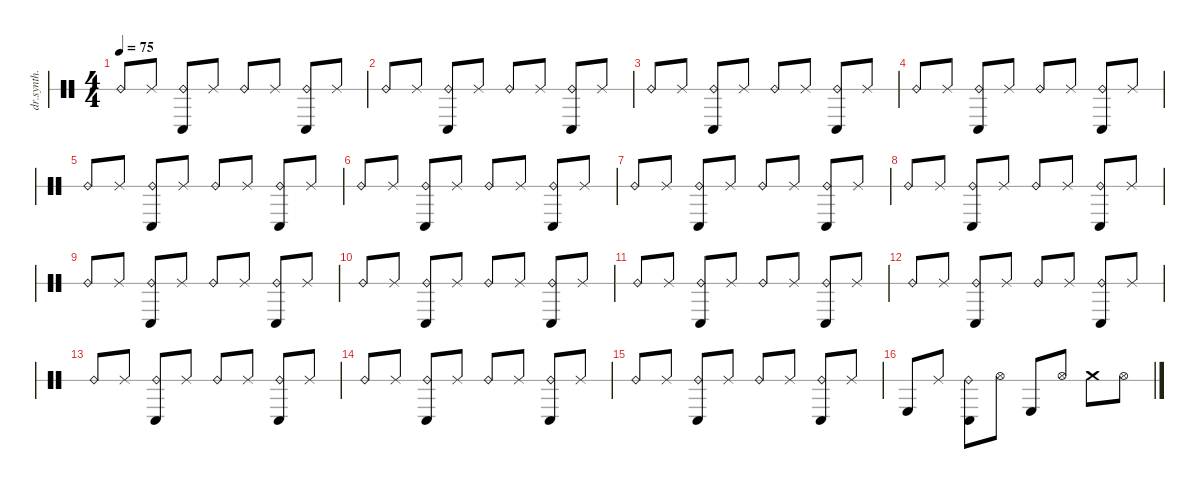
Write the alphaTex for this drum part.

\defaultSystemsLayout 4
\hideDynamics
\bracketExtendMode nobrackets
\otherSystemsTrackNameOrientation horizontal
\track ("Synth Drum" "dr.synth.") {instrument percussion}
\staff {score 1}
\articulation defaults
\ts (4 4)
\tempo 75
\clef neutral
\ks c "Ride (bell)".8{dy fff beam Up} "Ride (middle)".8{dy p beam Up}
("Ride (bell)" "Timbale high (hit)").8{dy mp beam Up} "Ride (middle)".8{dy f beam Up} "Ride (bell)".8{dy fff beam Up} "Ride (middle)".8{dy p beam Up} ("Ride (bell)" "Timbale high (hit)").8{dy mp beam Up} "Ride (middle)".8{dy f beam Up} |
"Ride (bell)".8{beam Up} "Ride (middle)".8{beam Up} ("Ride (bell)" "Timbale high (hit)").8{beam Up} "Ride (middle)".8{beam Up} "Ride (bell)".8{beam Up} "Ride (middle)".8{beam Up} ("Ride (bell)" "Timbale high (hit)").8{beam Up} "Ride (middle)".8{beam Up} |
"Ride (bell)".8{dy fff beam Up} "Ride (middle)".8{dy p beam Up} ("Ride (bell)" "Timbale high (hit)").8{dy mp beam Up} "Ride (middle)".8{dy f beam Up} "Ride (bell)".8{dy fff beam Up} "Ride (middle)".8{dy p beam Up} ("Ride (bell)" "Timbale high (hit)").8{dy mp beam Up} "Ride (middle)".8{dy f beam Up} |
"Ride (bell)".8{beam Up} "Ride (middle)".8{beam Up} ("Ride (bell)" "Timbale high (hit)").8{beam Up} "Ride (middle)".8{beam Up} "Ride (bell)".8{beam Up} "Ride (middle)".8{beam Up} ("Ride (bell)" "Timbale high (hit)").8{beam Up} "Ride (middle)".8{beam Up} |
"Ride (bell)".8{dy fff beam Up} "Ride (middle)".8{dy p beam Up} ("Ride (bell)" "Timbale high (hit)").8{dy mp beam Up} "Ride (middle)".8{dy f beam Up} "Ride (bell)".8{dy fff beam Up} "Ride (middle)".8{dy p beam Up} ("Ride (bell)" "Timbale high (hit)").8{dy mp beam Up} "Ride (middle)".8{dy f beam Up} |
"Ride (bell)".8{beam Up} "Ride (middle)".8{beam Up} ("Ride (bell)" "Timbale high (hit)").8{beam Up} "Ride (middle)".8{beam Up} "Ride (bell)".8{beam Up} "Ride (middle)".8{beam Up} ("Ride (bell)" "Timbale high (hit)").8{beam Up} "Ride (middle)".8{beam Up} |
"Ride (bell)".8{dy fff beam Up} "Ride (middle)".8{dy p beam Up} ("Ride (bell)" "Timbale high (hit)").8{dy mp beam Up} "Ride (middle)".8{dy f beam Up} "Ride (bell)".8{dy fff beam Up} "Ride (middle)".8{dy p beam Up} ("Ride (bell)" "Timbale high (hit)").8{dy mp beam Up} "Ride (middle)".8{dy f beam Up} |
"Ride (bell)".8{beam Up} "Ride (middle)".8{beam Up} ("Ride (bell)" "Timbale high (hit)").8{beam Up} "Ride (middle)".8{beam Up} "Ride (bell)".8{beam Up} "Ride (middle)".8{beam Up} ("Ride (bell)" "Timbale high (hit)").8{beam Up} "Ride (middle)".8{beam Up} |
"Ride (bell)".8{dy fff beam Up} "Ride (middle)".8{dy p beam Up} ("Ride (bell)" "Timbale high (hit)").8{dy mp beam Up} "Ride (middle)".8{dy f beam Up} "Ride (bell)".8{dy fff beam Up} "Ride (middle)".8{dy p beam Up} ("Ride (bell)" "Timbale high (hit)").8{dy mp beam Up} "Ride (middle)".8{dy f beam Up} |
"Ride (bell)".8{beam Up} "Ride (middle)".8{beam Up} ("Ride (bell)" "Timbale high (hit)").8{beam Up} "Ride (middle)".8{beam Up} "Ride (bell)".8{beam Up} "Ride (middle)".8{beam Up} ("Ride (bell)" "Timbale high (hit)").8{beam Up} "Ride (middle)".8{beam Up} |
"Ride (bell)".8{dy fff beam Up} "Ride (middle)".8{dy p beam Up} ("Ride (bell)" "Timbale high (hit)").8{dy mp beam Up} "Ride (middle)".8{dy f beam Up} "Ride (bell)".8{dy fff beam Up} "Ride (middle)".8{dy p beam Up} ("Ride (bell)" "Timbale high (hit)").8{dy mp beam Up} "Ride (middle)".8{dy f beam Up} |
"Ride (bell)".8{beam Up} "Ride (middle)".8{beam Up} ("Ride (bell)" "Timbale high (hit)").8{beam Up} "Ride (middle)".8{beam Up} "Ride (bell)".8{beam Up} "Ride (middle)".8{beam Up} ("Ride (bell)" "Timbale high (hit)").8{beam Up} "Ride (middle)".8{beam Up} |
"Ride (bell)".8{dy fff beam Up} "Ride (middle)".8{dy p beam Up} ("Ride (bell)" "Timbale high (hit)").8{dy mp beam Up} "Ride (middle)".8{dy f beam Up} "Ride (bell)".8{dy fff beam Up} "Ride (middle)".8{dy p beam Up} ("Ride (bell)" "Timbale high (hit)").8{dy mp beam Up} "Ride (middle)".8{dy f beam Up} |
"Ride (bell)".8{beam Up} "Ride (middle)".8{beam Up} ("Ride (bell)" "Timbale high (hit)").8{beam Up} "Ride (middle)".8{beam Up} "Ride (bell)".8{beam Up} "Ride (middle)".8{beam Up} ("Ride (bell)" "Timbale high (hit)").8{beam Up} "Ride (middle)".8{beam Up} |
"Ride (bell)".8{dy fff beam Up} "Ride (middle)".8{dy p beam Up} ("Ride (bell)" "Timbale high (hit)").8{dy mp beam Up} "Ride (middle)".8{dy f beam Up} "Ride (bell)".8{dy fff beam Up} "Ride (middle)".8{dy p beam Up} ("Ride (bell)" "Timbale high (hit)").8{dy mp beam Up} "Ride (middle)".8{dy f beam Up} |
"Kick (hit) 2".8{dy mf beam Up} "Ride (middle)".8{dy f beam Up} ("Ride (bell)" "Timbale high (hit)").8{dy mp beam Down} "Hi-Hat (open)".8{dy mf beam Down} "Kick (hit) 2".8{beam Up} "Hi-Hat (open)".8{beam Up} "Crash medium (hit)".8{beam Down} "Hi-Hat (open)".8{beam Down}
